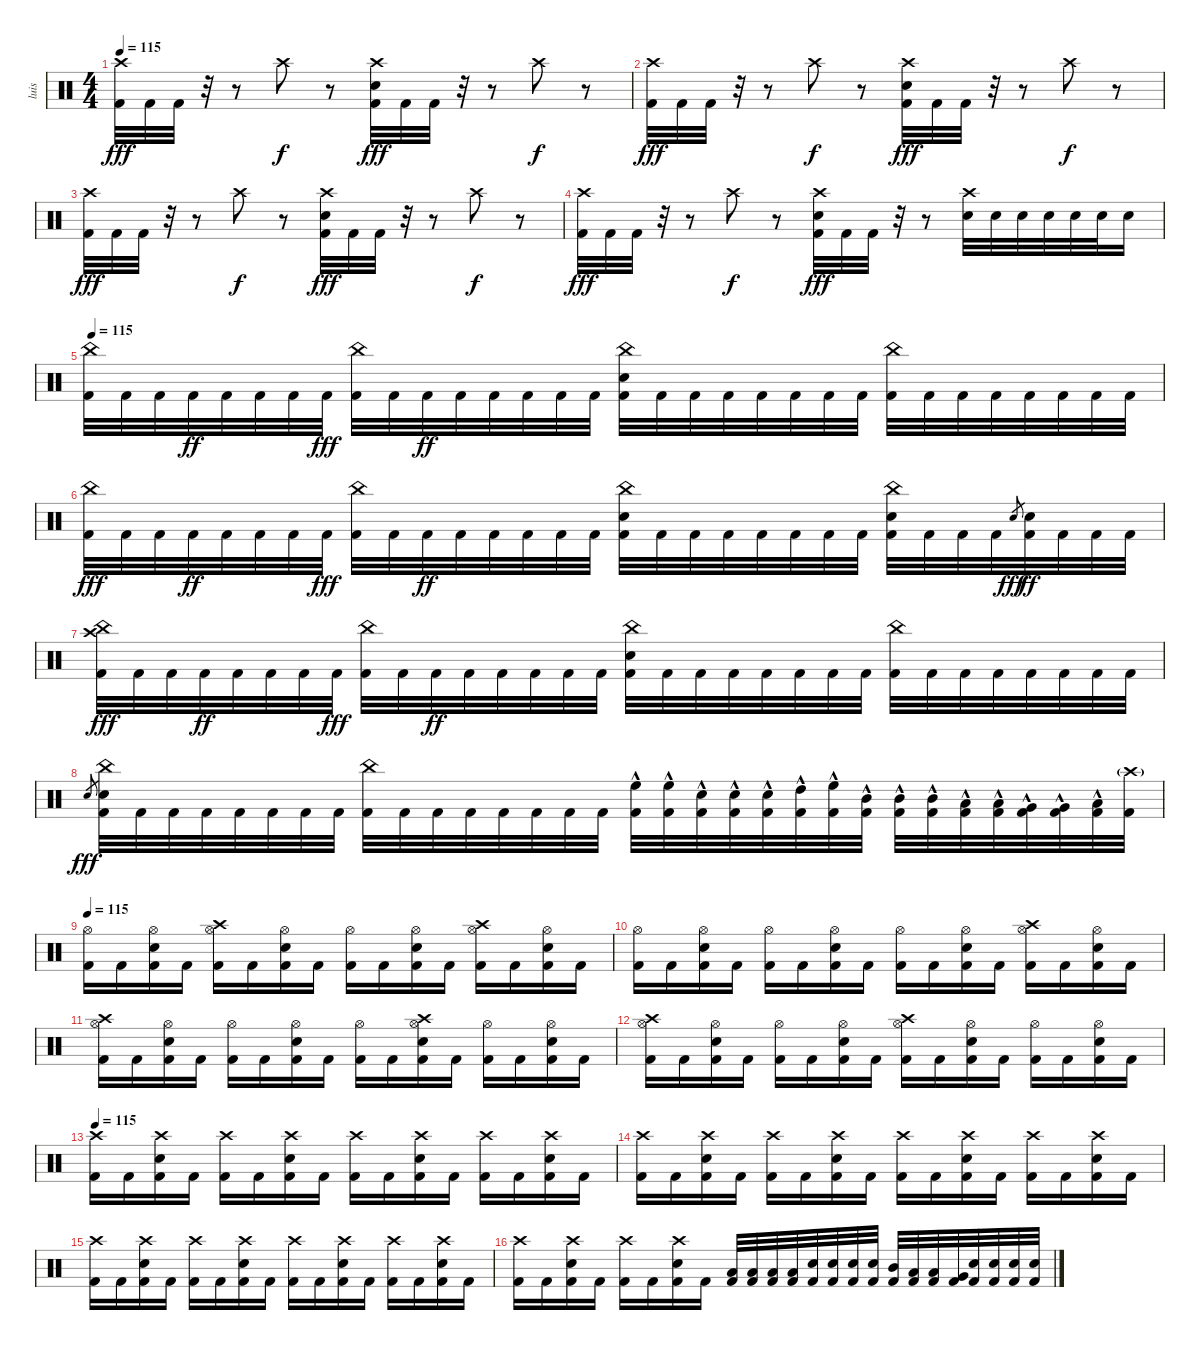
\track ("luis" "luis") {instrument percussion}
\staff {score}
\articulation defaults
\ts (4 4)
\tempo 115
\clef neutral
\ks c
("Crash high (hit)" "Kick (hit) 2").32{dy fff} "Kick (hit) 2".32 "Kick (hit) 2".32 r.32 r.8 "Crash high (hit)".8{dy f} r.8 ("Crash high (hit)" "Electric Snare (hit)" "Kick (hit) 2").32{dy fff} "Kick (hit) 2".32 "Kick (hit) 2".32 r.32 r.8 "Crash high (hit)".8{dy f} r.8 |
("Crash high (hit)" "Kick (hit) 2").32{dy fff} "Kick (hit) 2".32 "Kick (hit) 2".32 r.32 r.8 "Crash high (hit)".8{dy f} r.8 ("Crash high (hit)" "Electric Snare (hit)" "Kick (hit) 2").32{dy fff} "Kick (hit) 2".32 "Kick (hit) 2".32 r.32 r.8 "Crash high (hit)".8{dy f} r.8 |
("Crash high (hit)" "Kick (hit) 2").32{dy fff} "Kick (hit) 2".32 "Kick (hit) 2".32 r.32 r.8 "Crash high (hit)".8{dy f} r.8 ("Crash high (hit)" "Electric Snare (hit)" "Kick (hit) 2").32{dy fff} "Kick (hit) 2".32 "Kick (hit) 2".32 r.32 r.8 "Crash high (hit)".8{dy f} r.8 |
("Crash high (hit)" "Kick (hit) 2").32{dy fff} "Kick (hit) 2".32 "Kick (hit) 2".32 r.32 r.8 "Crash high (hit)".8{dy f} r.8 ("Crash high (hit)" "Electric Snare (hit)" "Kick (hit) 2").32{dy fff} "Kick (hit) 2".32 "Kick (hit) 2".32 r.32 r.8 ("Crash high (hit)" "Electric Snare (hit)").32 "Electric Snare (hit)".32 "Electric Snare (hit)".32 "Electric Snare (hit)".32 "Electric Snare (hit)".32 "Electric Snare (hit)".32 "Electric Snare (hit)".16 |
\tempo 115
("China (hit)" "Kick (hit) 2").32 "Kick (hit) 2".32 "Kick (hit) 2".32 "Kick (hit) 2".32{dy ff} "Kick (hit) 2".32 "Kick (hit) 2".32 "Kick (hit) 2".32 "Kick (hit) 2".32{dy fff} ("China (hit)" "Kick (hit) 2").32 "Kick (hit) 2".32 "Kick (hit) 2".32{dy ff} "Kick (hit) 2".32 "Kick (hit) 2".32 "Kick (hit) 2".32 "Kick (hit) 2".32 "Kick (hit) 2".32 ("China (hit)" "Electric Snare (hit)" "Kick (hit) 2").32 "Kick (hit) 2".32 "Kick (hit) 2".32 "Kick (hit) 2".32 "Kick (hit) 2".32 "Kick (hit) 2".32 "Kick (hit) 2".32 "Kick (hit) 2".32 ("China (hit)" "Kick (hit) 2").32 "Kick (hit) 2".32 "Kick (hit) 2".32 "Kick (hit) 2".32 "Kick (hit) 2".32 "Kick (hit) 2".32 "Kick (hit) 2".32 "Kick (hit) 2".32 |
("China (hit)" "Kick (hit) 2").32{dy fff} "Kick (hit) 2".32 "Kick (hit) 2".32 "Kick (hit) 2".32{dy ff} "Kick (hit) 2".32 "Kick (hit) 2".32 "Kick (hit) 2".32 "Kick (hit) 2".32{dy fff} ("China (hit)" "Kick (hit) 2").32 "Kick (hit) 2".32 "Kick (hit) 2".32{dy ff} "Kick (hit) 2".32 "Kick (hit) 2".32 "Kick (hit) 2".32 "Kick (hit) 2".32 "Kick (hit) 2".32 ("China (hit)" "Electric Snare (hit)" "Kick (hit) 2").32 "Kick (hit) 2".32 "Kick (hit) 2".32 "Kick (hit) 2".32 "Kick (hit) 2".32 "Kick (hit) 2".32 "Kick (hit) 2".32 "Kick (hit) 2".32 ("China (hit)" "Electric Snare (hit)" "Kick (hit) 2").32 "Kick (hit) 2".32 "Kick (hit) 2".32 "Kick (hit) 2".32 "Electric Snare (hit)".8{gr dy fff} ("Electric Snare (hit)" "Kick (hit) 2").32{dy ff} "Kick (hit) 2".32 "Kick (hit) 2".32 "Kick (hit) 2".32 |
("China (hit)" "Crash high (hit)" "Kick (hit) 2").32{dy fff} "Kick (hit) 2".32 "Kick (hit) 2".32 "Kick (hit) 2".32{dy ff} "Kick (hit) 2".32 "Kick (hit) 2".32 "Kick (hit) 2".32 "Kick (hit) 2".32{dy fff} ("China (hit)" "Kick (hit) 2").32 "Kick (hit) 2".32 "Kick (hit) 2".32{dy ff} "Kick (hit) 2".32 "Kick (hit) 2".32 "Kick (hit) 2".32 "Kick (hit) 2".32 "Kick (hit) 2".32 ("China (hit)" "Electric Snare (hit)" "Kick (hit) 2").32 "Kick (hit) 2".32 "Kick (hit) 2".32 "Kick (hit) 2".32 "Kick (hit) 2".32 "Kick (hit) 2".32 "Kick (hit) 2".32 "Kick (hit) 2".32 ("China (hit)" "Kick (hit) 2").32 "Kick (hit) 2".32 "Kick (hit) 2".32 "Kick (hit) 2".32 "Kick (hit) 2".32 "Kick (hit) 2".32 "Kick (hit) 2".32 "Kick (hit) 2".32 |
"Electric Snare (hit)".8{gr dy fff} ("China (hit)" "Electric Snare (hit)" "Kick (hit) 2").32 "Kick (hit) 2".32 "Kick (hit) 2".32 "Kick (hit) 2".32 "Kick (hit) 2".32 "Kick (hit) 2".32 "Kick (hit) 2".32 "Kick (hit) 2".32 ("China (hit)" "Kick (hit) 2").32 "Kick (hit) 2".32 "Kick (hit) 2".32 "Kick (hit) 2".32 "Kick (hit) 2".32 "Kick (hit) 2".32 "Kick (hit) 2".32 "Kick (hit) 2".32 ("High Floor Tom (hit)"{hac} "Kick (hit) 2").32 ("High Floor Tom (hit)"{hac} "Kick (hit) 2").32 ("Electric Snare (hit)"{hac} "Kick (hit) 2").32 ("Electric Snare (hit)"{hac} "Kick (hit) 2").32 ("Electric Snare (hit)"{hac} "Kick (hit) 2").32 ("High Tom (hit)"{hac} "Kick (hit) 2").32 ("High Floor Tom (hit)"{hac} "Kick (hit) 2").32 ("Mid Tom (hit)"{hac} "Kick (hit) 2").32 ("Mid Tom (hit)"{hac} "Kick (hit) 2").32 ("Mid Tom (hit)"{hac} "Kick (hit) 2").32 ("Low Tom (hit)"{hac} "Kick (hit) 2").32 ("Low Tom (hit)"{hac} "Kick (hit) 2").32 ("Very Low Tom (hit)"{hac} "Kick (hit) 2").32 ("Very Low Tom (hit)"{hac} "Kick (hit) 2").32 ("Low Floor Tom (hit)"{hac} "Kick (hit) 2").32 ("Crash high (hit)"{g} "Kick (hit) 2").32 |
\tempo 115
("Hi-Hat (open)" "Kick (hit) 2").16 "Kick (hit) 2".16 ("Hi-Hat (open)" "Electric Snare (hit)" "Kick (hit) 2").16 "Kick (hit) 2".16 ("Crash high (hit)" "Hi-Hat (open)" "Kick (hit) 2").16 "Kick (hit) 2".16 ("Hi-Hat (open)" "Electric Snare (hit)" "Kick (hit) 2").16 "Kick (hit) 2".16 ("Hi-Hat (open)" "Kick (hit) 2").16 "Kick (hit) 2".16 ("Hi-Hat (open)" "Electric Snare (hit)" "Kick (hit) 2").16 "Kick (hit) 2".16 ("Crash high (hit)" "Hi-Hat (open)" "Kick (hit) 2").16 "Kick (hit) 2".16 ("Hi-Hat (open)" "Electric Snare (hit)" "Kick (hit) 2").16 "Kick (hit) 2".16 |
("Hi-Hat (open)" "Kick (hit) 2").16 "Kick (hit) 2".16 ("Hi-Hat (open)" "Electric Snare (hit)" "Kick (hit) 2").16 "Kick (hit) 2".16 ("Hi-Hat (open)" "Kick (hit) 2").16 "Kick (hit) 2".16 ("Hi-Hat (open)" "Electric Snare (hit)" "Kick (hit) 2").16 "Kick (hit) 2".16 ("Hi-Hat (open)" "Kick (hit) 2").16 "Kick (hit) 2".16 ("Hi-Hat (open)" "Electric Snare (hit)" "Kick (hit) 2").16 "Kick (hit) 2".16 ("Crash high (hit)" "Hi-Hat (open)" "Kick (hit) 2").16 "Kick (hit) 2".16 ("Hi-Hat (open)" "Electric Snare (hit)" "Kick (hit) 2").16 "Kick (hit) 2".16 |
("Crash high (hit)" "Hi-Hat (open)" "Kick (hit) 2").16 "Kick (hit) 2".16 ("Hi-Hat (open)" "Electric Snare (hit)" "Kick (hit) 2").16 "Kick (hit) 2".16 ("Hi-Hat (open)" "Kick (hit) 2").16 "Kick (hit) 2".16 ("Hi-Hat (open)" "Electric Snare (hit)" "Kick (hit) 2").16 "Kick (hit) 2".16 ("Hi-Hat (open)" "Kick (hit) 2").16 "Kick (hit) 2".16 ("Crash high (hit)" "Hi-Hat (open)" "Electric Snare (hit)" "Kick (hit) 2").16 "Kick (hit) 2".16 ("Hi-Hat (open)" "Kick (hit) 2").16 "Kick (hit) 2".16 ("Hi-Hat (open)" "Electric Snare (hit)" "Kick (hit) 2").16 "Kick (hit) 2".16 |
("Crash high (hit)" "Hi-Hat (open)" "Kick (hit) 2").16 "Kick (hit) 2".16 ("Hi-Hat (open)" "Electric Snare (hit)" "Kick (hit) 2").16 "Kick (hit) 2".16 ("Hi-Hat (open)" "Kick (hit) 2").16 "Kick (hit) 2".16 ("Hi-Hat (open)" "Electric Snare (hit)" "Kick (hit) 2").16 "Kick (hit) 2".16 ("Crash high (hit)" "Hi-Hat (open)" "Kick (hit) 2").16 "Kick (hit) 2".16 ("Hi-Hat (open)" "Electric Snare (hit)" "Kick (hit) 2").16 "Kick (hit) 2".16 ("Hi-Hat (open)" "Kick (hit) 2").16 "Kick (hit) 2".16 ("Hi-Hat (open)" "Electric Snare (hit)" "Kick (hit) 2").16 "Kick (hit) 2".16 |
\tempo 115
("Crash high (hit)" "Kick (hit) 2").16 "Kick (hit) 2".16 ("Crash high (hit)" "Electric Snare (hit)" "Kick (hit) 2").16 "Kick (hit) 2".16 ("Crash high (hit)" "Kick (hit) 2").16 "Kick (hit) 2".16 ("Crash high (hit)" "Electric Snare (hit)" "Kick (hit) 2").16 "Kick (hit) 2".16 ("Crash high (hit)" "Kick (hit) 2").16 "Kick (hit) 2".16 ("Crash high (hit)" "Electric Snare (hit)" "Kick (hit) 2").16 "Kick (hit) 2".16 ("Crash high (hit)" "Kick (hit) 2").16 "Kick (hit) 2".16 ("Crash high (hit)" "Electric Snare (hit)" "Kick (hit) 2").16 "Kick (hit) 2".16 |
("Crash high (hit)" "Kick (hit) 2").16 "Kick (hit) 2".16 ("Crash high (hit)" "Electric Snare (hit)" "Kick (hit) 2").16 "Kick (hit) 2".16 ("Crash high (hit)" "Kick (hit) 2").16 "Kick (hit) 2".16 ("Crash high (hit)" "Electric Snare (hit)" "Kick (hit) 2").16 "Kick (hit) 2".16 ("Crash high (hit)" "Kick (hit) 2").16 "Kick (hit) 2".16 ("Crash high (hit)" "Electric Snare (hit)" "Kick (hit) 2").16 "Kick (hit) 2".16 ("Crash high (hit)" "Kick (hit) 2").16 "Kick (hit) 2".16 ("Crash high (hit)" "Electric Snare (hit)" "Kick (hit) 2").16 "Kick (hit) 2".16 |
("Crash high (hit)" "Kick (hit) 2").16 "Kick (hit) 2".16 ("Crash high (hit)" "Electric Snare (hit)" "Kick (hit) 2").16 "Kick (hit) 2".16 ("Crash high (hit)" "Kick (hit) 2").16 "Kick (hit) 2".16 ("Crash high (hit)" "Electric Snare (hit)" "Kick (hit) 2").16 "Kick (hit) 2".16 ("Crash high (hit)" "Kick (hit) 2").16 "Kick (hit) 2".16 ("Crash high (hit)" "Electric Snare (hit)" "Kick (hit) 2").16 "Kick (hit) 2".16 ("Crash high (hit)" "Kick (hit) 2").16 "Kick (hit) 2".16 ("Crash high (hit)" "Electric Snare (hit)" "Kick (hit) 2").16 "Kick (hit) 2".16 |
("Crash high (hit)" "Kick (hit) 2").16 "Kick (hit) 2".16 ("Crash high (hit)" "Electric Snare (hit)" "Kick (hit) 2").16 "Kick (hit) 2".16 ("Crash high (hit)" "Kick (hit) 2").16 "Kick (hit) 2".16 ("Crash high (hit)" "Electric Snare (hit)" "Kick (hit) 2").16 "Kick (hit) 2".16 ("Low Tom (hit)" "Kick (hit) 2").32 ("Low Tom (hit)" "Kick (hit) 2").32 ("Low Tom (hit)" "Kick (hit) 2").32 ("Low Tom (hit)" "Kick (hit) 2").32 ("Electric Snare (hit)" "Kick (hit) 2").32 ("Electric Snare (hit)" "Kick (hit) 2").32 ("Electric Snare (hit)" "Kick (hit) 2").32 ("Electric Snare (hit)" "Kick (hit) 2").32 ("Mid Tom (hit)" "Kick (hit) 2").32 ("Low Tom (hit)" "Kick (hit) 2").32 ("Low Tom (hit)" "Kick (hit) 2").32 ("Very Low Tom (hit)" "Kick (hit) 2").32 ("Electric Snare (hit)" "Kick (hit) 2").32 ("Electric Snare (hit)" "Kick (hit) 2").32 ("Electric Snare (hit)" "Kick (hit) 2").32 ("Electric Snare (hit)" "Kick (hit) 2").32
